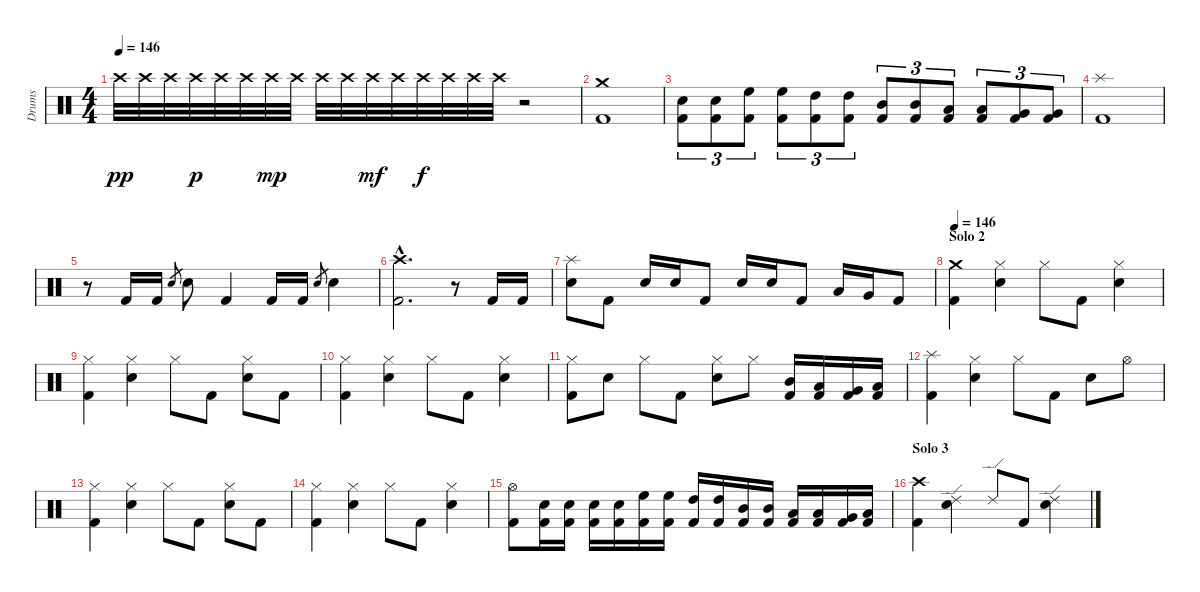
\track ("Drums" "Drums") {instrument percussion}
\staff {score}
\articulation defaults
\ts (4 4)
\tempo 146
\clef neutral
\ks c "Crash high (hit)".32{dy pp} "Crash high (hit)".32 "Crash high (hit)".32 "Crash high (hit)".32{dy p} "Crash high (hit)".32 "Crash high (hit)".32 "Crash high (hit)".32{dy mp} "Crash high (hit)".32 "Crash high (hit)".32 "Crash high (hit)".32 "Crash high (hit)".32{dy mf} "Crash high (hit)".32 "Crash high (hit)".32{dy f} "Crash high (hit)".32 "Crash high (hit)".32 "Crash high (hit)".32
r.2 |
("Kick (hit) 2" "Crash medium (hit)").1 |
("Kick (hit) 2" "Snare (hit) 2").8{tu (3 2)} ("Kick (hit) 2" "Snare (hit) 2").8{tu (3 2)} ("Kick (hit) 2" "High Floor Tom (hit)").8{tu (3 2)} ("Kick (hit) 2" "High Floor Tom (hit)").8{tu (3 2)} ("Kick (hit) 2" "High Tom (hit)").8{tu (3 2)} ("Kick (hit) 2" "High Tom (hit)").8{tu (3 2)} ("Kick (hit) 2" "Mid Tom (hit)").8{tu (3 2)} ("Kick (hit) 2" "Mid Tom (hit)").8{tu (3 2)} ("Kick (hit) 2" "Low Tom (hit)").8{tu (3 2)} ("Kick (hit) 2" "Low Tom (hit)").8{tu (3 2)} ("Kick (hit) 2" "Very Low Tom (hit)").8{tu (3 2)} ("Kick (hit) 2" "Very Low Tom (hit)").8{tu (3 2)} |
("Kick (hit) 2" "Splash (hit)").1 |
r.8 "Kick (hit) 2".16 "Kick (hit) 2".16 "Snare (hit) 2".8{gr} "Snare (hit) 2".8 "Kick (hit) 2".4 "Kick (hit) 2".16 "Kick (hit) 2".16 "Snare (hit) 2".8{gr} "Snare (hit) 2".4 |
("Kick (hit) 2"{hac} "Crash high (hit)"{hac}).2{d} r.8 "Kick (hit) 2".16 "Kick (hit) 2".16 |
("Snare (hit) 2" "Splash (hit)").8 "Kick (hit) 2".8 "Snare (hit) 2".16 "Snare (hit) 2".16 "Kick (hit) 2".8 "Snare (hit) 2".16 "Snare (hit) 2".16 "Kick (hit) 2".8 "Low Tom (hit)".16 "Very Low Tom (hit)".16 "Kick (hit) 2".8 |
\section ("" "Solo 2")
\tempo 146
("Kick (hit) 2" "Crash medium (hit)").4 ("Snare (hit) 2" "Hi-Hat (closed)").4 "Hi-Hat (closed)".8 "Kick (hit) 2".8 ("Snare (hit) 2" "Hi-Hat (closed)").4 |
("Kick (hit) 2" "Hi-Hat (closed)").4 ("Snare (hit) 2" "Hi-Hat (closed)").4 "Hi-Hat (closed)".8 "Kick (hit) 2".8 ("Snare (hit) 2" "Hi-Hat (closed)").8 "Kick (hit) 2".8 |
("Kick (hit) 2" "Hi-Hat (closed)").4 ("Snare (hit) 2" "Hi-Hat (closed)").4 "Hi-Hat (closed)".8 "Kick (hit) 2".8 ("Snare (hit) 2" "Hi-Hat (closed)").4 |
("Kick (hit) 2" "Hi-Hat (closed)").8 "Snare (hit) 2".8 "Hi-Hat (closed)".8 "Kick (hit) 2".8 ("Snare (hit) 2" "Hi-Hat (closed)").8 "Hi-Hat (closed)".8 ("Kick (hit) 2" "Mid Tom (hit)").16 ("Kick (hit) 2" "Low Tom (hit)").16 ("Kick (hit) 2" "Very Low Tom (hit)").16 ("Kick (hit) 2" "Low Floor Tom (hit)").16 |
("Kick (hit) 2" "Splash (hit)").4 ("Snare (hit) 2" "Hi-Hat (closed)").4 "Hi-Hat (closed)".8 "Kick (hit) 2".8 "Snare (hit) 2".8 "Hi-Hat (open)".8 |
("Kick (hit) 2" "Hi-Hat (closed)").4 ("Snare (hit) 2" "Hi-Hat (closed)").4 "Hi-Hat (closed)".8 "Kick (hit) 2".8 ("Snare (hit) 2" "Hi-Hat (closed)").8 "Kick (hit) 2".8 |
("Kick (hit) 2" "Hi-Hat (closed)").4 ("Snare (hit) 2" "Hi-Hat (closed)").4 "Hi-Hat (closed)".8 "Kick (hit) 2".8 ("Snare (hit) 2" "Hi-Hat (closed)").4 |
("Kick (hit) 2" "Hi-Hat (open)").8 ("Kick (hit) 2" "Snare (hit) 2").16 ("Kick (hit) 2" "Snare (hit) 2").16 ("Kick (hit) 2" "Snare (hit) 2").16 ("Kick (hit) 2" "Snare (hit) 2").16 ("Kick (hit) 2" "High Floor Tom (hit)").16 ("Kick (hit) 2" "High Floor Tom (hit)").16 ("Kick (hit) 2" "High Tom (hit)").16 ("Kick (hit) 2" "High Tom (hit)").16 ("Kick (hit) 2" "Mid Tom (hit)").16 ("Kick (hit) 2" "Mid Tom (hit)").16 ("Kick (hit) 2" "Low Tom (hit)").16 ("Kick (hit) 2" "Low Tom (hit)").16 ("Kick (hit) 2" "Very Low Tom (hit)").16 ("Kick (hit) 2" "Low Floor Tom (hit)").16 |
\section ("" "Solo 3")
("Kick (hit) 2" "Crash high (hit)").4 ("Snare (hit) 2" "Ride (edge) 2").4 "Ride (edge) 2".8 "Kick (hit) 2".8 ("Snare (hit) 2" "Ride (edge) 2").4
